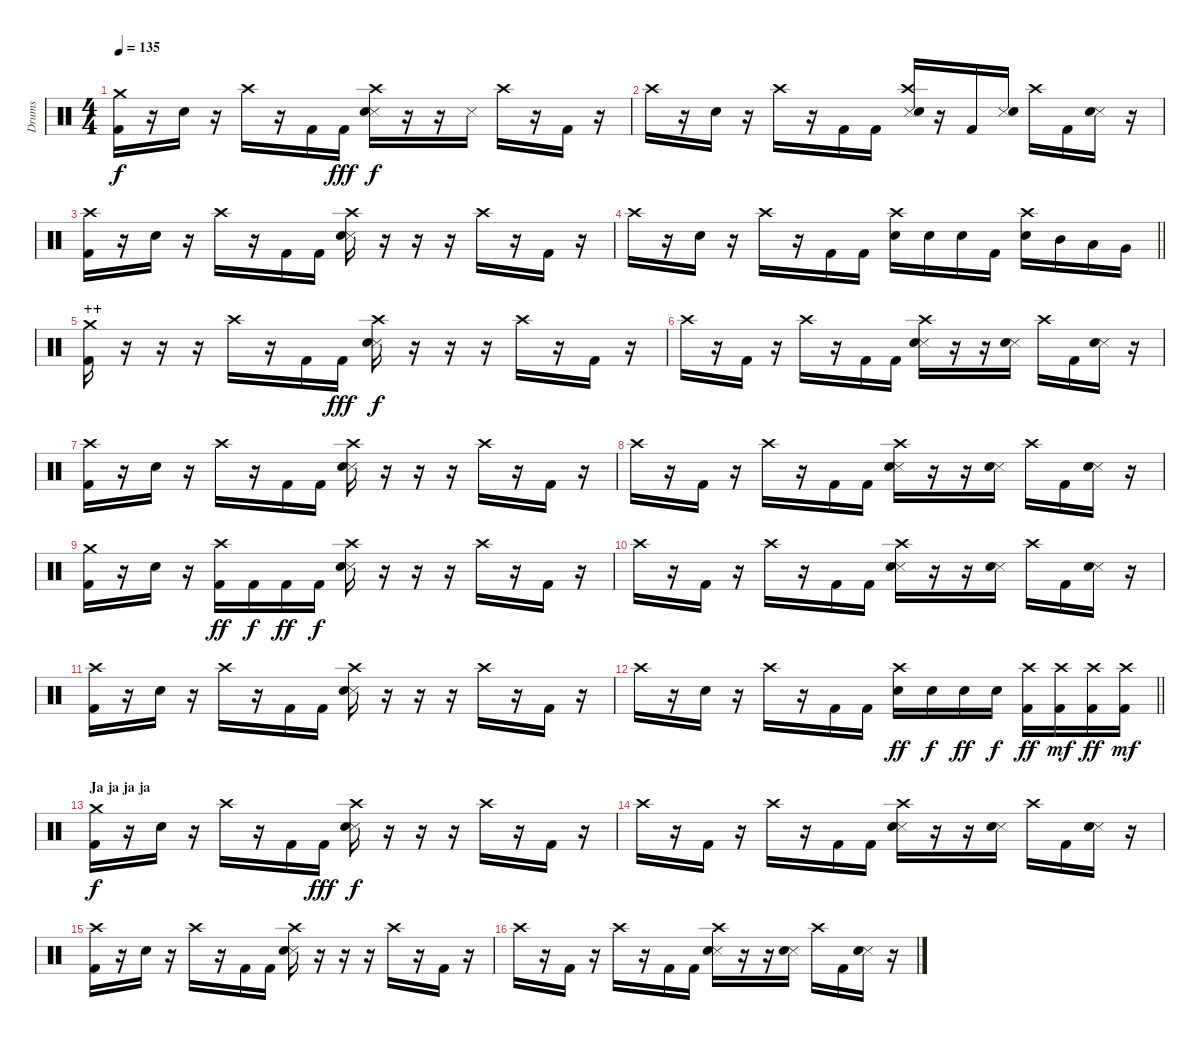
\track ("Drums" "Drums") {instrument percussion}
\staff {score}
\articulation defaults
\ts (4 4)
\tempo 135
\clef neutral
\ks c
("Crash medium (hit)" "Kick (hit) 2").16{dy f} r.16 "Electric Snare (hit)".16 r.16 "Crash high (hit)".16 r.16 "Kick (hit) 2".16 "Kick (hit) 2".16{dy fff} ("Crash high (hit)" "Snare (side stick) 3" "Electric Snare (hit)").16{dy f} r.16 r.16 "Snare (side stick) 3".16 "Crash high (hit)".16 r.16 "Kick (hit) 2".16 r.16 |
"Crash high (hit)".16 r.16 "Electric Snare (hit)".16 r.16 "Crash high (hit)".16 r.16 "Kick (hit) 2".16 "Kick (hit) 2".16 ("Crash high (hit)" "Snare (side stick) 3" "Electric Snare (hit)").16 r.16 "Kick (hit) 2".16 ("Snare (side stick) 3" "Electric Snare (hit)").16 "Crash high (hit)".16 "Kick (hit) 2".16 ("Snare (side stick) 3" "Electric Snare (hit)").16 r.16 |
("Kick (hit) 2" "Crash high (hit)").16 r.16 "Electric Snare (hit)".16 r.16 "Crash high (hit)".16 r.16 "Kick (hit) 2".16 "Kick (hit) 2".16 ("Snare (side stick) 3" "Electric Snare (hit)" "Crash high (hit)").16 r.16 r.16 r.16 "Crash high (hit)".16 r.16 "Kick (hit) 2".16 r.16 |
\barLineRight lightlight "Crash high (hit)".16
r.16 "Electric Snare (hit)".16 r.16 "Crash high (hit)".16 r.16 "Kick (hit) 2".16 "Kick (hit) 2".16 ("Electric Snare (hit)" "Crash high (hit)").16 "Electric Snare (hit)".16 "Electric Snare (hit)".16 "Kick (hit) 2".16 ("Electric Snare (hit)" "Crash high (hit)").16 "Mid Tom (hit)".16 "Low Tom (hit)".16 "Very Low Tom (hit)".16 |
\section ("" "++")
("Crash medium (hit)" "Kick (hit) 2").16 r.16 r.16 r.16 "Crash high (hit)".16 r.16 "Kick (hit) 2".16 "Kick (hit) 2".16{dy fff} ("Crash high (hit)" "Snare (side stick) 3" "Electric Snare (hit)").16{dy f} r.16 r.16 r.16 "Crash high (hit)".16 r.16 "Kick (hit) 2".16 r.16 |
"Crash high (hit)".16 r.16 "Kick (hit) 2".16 r.16 "Crash high (hit)".16 r.16 "Kick (hit) 2".16 "Kick (hit) 2".16 ("Crash high (hit)" "Snare (side stick) 3" "Electric Snare (hit)").16 r.16 r.16 ("Snare (side stick) 3" "Electric Snare (hit)").16 "Crash high (hit)".16 "Kick (hit) 2".16 ("Snare (side stick) 3" "Electric Snare (hit)").16 r.16 |
("Kick (hit) 2" "Crash high (hit)").16 r.16 "Electric Snare (hit)".16 r.16 "Crash high (hit)".16 r.16 "Kick (hit) 2".16 "Kick (hit) 2".16 ("Snare (side stick) 3" "Electric Snare (hit)" "Crash high (hit)").16 r.16 r.16 r.16 "Crash high (hit)".16 r.16 "Kick (hit) 2".16 r.16 |
"Crash high (hit)".16 r.16 "Kick (hit) 2".16 r.16 "Crash high (hit)".16 r.16 "Kick (hit) 2".16 "Kick (hit) 2".16 ("Crash high (hit)" "Snare (side stick) 3" "Electric Snare (hit)").16 r.16 r.16 ("Snare (side stick) 3" "Electric Snare (hit)").16 "Crash high (hit)".16 "Kick (hit) 2".16 ("Snare (side stick) 3" "Electric Snare (hit)").16 r.16 |
("Crash medium (hit)" "Kick (hit) 2").16 r.16 "Electric Snare (hit)".16 r.16 ("Crash high (hit)" "Kick (hit) 2").16{dy ff} "Kick (hit) 2".16{dy f} "Kick (hit) 2".16{dy ff} "Kick (hit) 2".16{dy f} ("Crash high (hit)" "Snare (side stick) 3" "Electric Snare (hit)").16 r.16 r.16 r.16 "Crash high (hit)".16 r.16 "Kick (hit) 2".16 r.16 |
"Crash high (hit)".16 r.16 "Kick (hit) 2".16 r.16 "Crash high (hit)".16 r.16 "Kick (hit) 2".16 "Kick (hit) 2".16 ("Crash high (hit)" "Snare (side stick) 3" "Electric Snare (hit)").16 r.16 r.16 ("Snare (side stick) 3" "Electric Snare (hit)").16 "Crash high (hit)".16 "Kick (hit) 2".16 ("Snare (side stick) 3" "Electric Snare (hit)").16 r.16 |
("Kick (hit) 2" "Crash high (hit)").16 r.16 "Electric Snare (hit)".16 r.16 "Crash high (hit)".16 r.16 "Kick (hit) 2".16 "Kick (hit) 2".16 ("Snare (side stick) 3" "Electric Snare (hit)" "Crash high (hit)").16 r.16 r.16 r.16 "Crash high (hit)".16 r.16 "Kick (hit) 2".16 r.16 |
\barLineRight lightlight "Crash high (hit)".16
r.16 "Electric Snare (hit)".16 r.16 "Crash high (hit)".16 r.16 "Kick (hit) 2".16 "Kick (hit) 2".16 ("Electric Snare (hit)" "Crash high (hit)").16{dy ff} "Electric Snare (hit)".16{dy f} "Electric Snare (hit)".16{dy ff} "Electric Snare (hit)".16{dy f} ("Kick (hit) 2" "Crash high (hit)").16{dy ff} ("Kick (hit) 2" "Crash high (hit)").16{dy mf} ("Kick (hit) 2" "Crash high (hit)").16{dy ff} ("Kick (hit) 2" "Crash high (hit)").16{dy mf} |
\section ("" "Ja ja ja ja")
("Crash medium (hit)" "Kick (hit) 2").16{dy f} r.16 "Electric Snare (hit)".16 r.16 "Crash high (hit)".16 r.16 "Kick (hit) 2".16 "Kick (hit) 2".16{dy fff} ("Crash high (hit)" "Snare (side stick) 3" "Electric Snare (hit)").16{dy f} r.16 r.16 r.16 "Crash high (hit)".16 r.16 "Kick (hit) 2".16 r.16 |
"Crash high (hit)".16 r.16 "Kick (hit) 2".16 r.16 "Crash high (hit)".16 r.16 "Kick (hit) 2".16 "Kick (hit) 2".16 ("Crash high (hit)" "Snare (side stick) 3" "Electric Snare (hit)").16 r.16 r.16 ("Snare (side stick) 3" "Electric Snare (hit)").16 "Crash high (hit)".16 "Kick (hit) 2".16 ("Snare (side stick) 3" "Electric Snare (hit)").16 r.16 |
("Kick (hit) 2" "Crash high (hit)").16 r.16 "Electric Snare (hit)".16 r.16 "Crash high (hit)".16 r.16 "Kick (hit) 2".16 "Kick (hit) 2".16 ("Snare (side stick) 3" "Electric Snare (hit)" "Crash high (hit)").16 r.16 r.16 r.16 "Crash high (hit)".16 r.16 "Kick (hit) 2".16 r.16 |
"Crash high (hit)".16 r.16 "Kick (hit) 2".16 r.16 "Crash high (hit)".16 r.16 "Kick (hit) 2".16 "Kick (hit) 2".16 ("Crash high (hit)" "Snare (side stick) 3" "Electric Snare (hit)").16 r.16 r.16 ("Snare (side stick) 3" "Electric Snare (hit)").16 "Crash high (hit)".16 "Kick (hit) 2".16 ("Snare (side stick) 3" "Electric Snare (hit)").16 r.16
